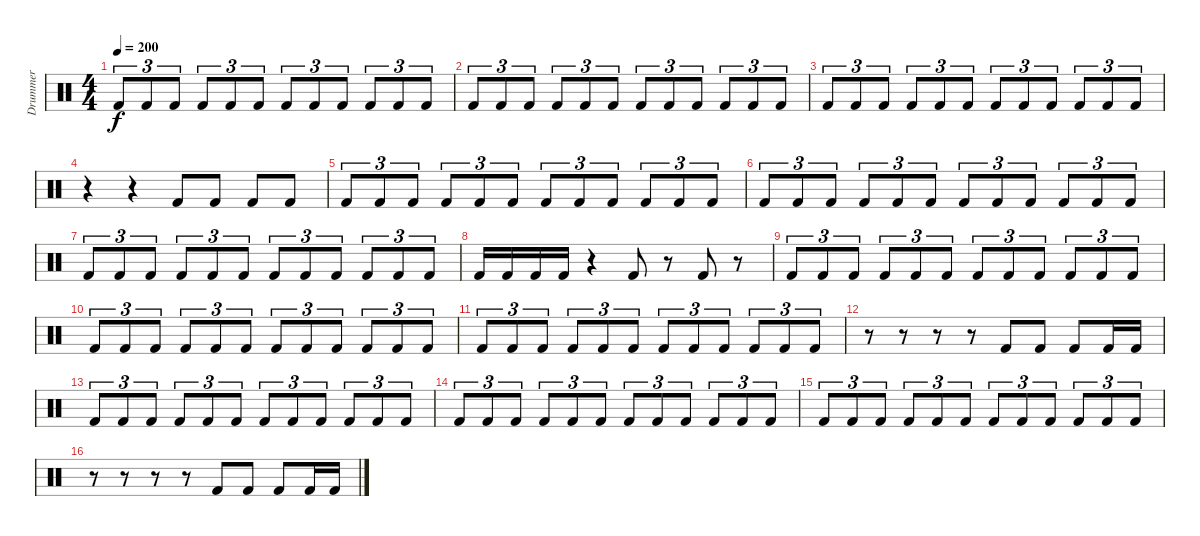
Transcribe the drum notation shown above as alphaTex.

\track ("Drummer" "Drummer") {instrument percussion}
\staff {score}
\articulation defaults
\ts (4 4)
\tempo 200
\clef neutral
\ks c "Kick (hit) 2".8{tu (3 2) dy f} "Kick (hit) 2".8{tu (3 2)} "Kick (hit) 2".8{tu (3 2)} "Kick (hit) 2".8{tu (3 2)} "Kick (hit) 2".8{tu (3 2)} "Kick (hit) 2".8{tu (3 2)} "Kick (hit) 2".8{tu (3 2)} "Kick (hit) 2".8{tu (3 2)} "Kick (hit) 2".8{tu (3 2)} "Kick (hit) 2".8{tu (3 2)} "Kick (hit) 2".8{tu (3 2)} "Kick (hit) 2".8{tu (3 2)}
|
"Kick (hit) 2".8{tu (3 2)} "Kick (hit) 2".8{tu (3 2)} "Kick (hit) 2".8{tu (3 2)} "Kick (hit) 2".8{tu (3 2)} "Kick (hit) 2".8{tu (3 2)} "Kick (hit) 2".8{tu (3 2)} "Kick (hit) 2".8{tu (3 2)} "Kick (hit) 2".8{tu (3 2)} "Kick (hit) 2".8{tu (3 2)} "Kick (hit) 2".8{tu (3 2)} "Kick (hit) 2".8{tu (3 2)} "Kick (hit) 2".8{tu (3 2)} |
"Kick (hit) 2".8{tu (3 2)} "Kick (hit) 2".8{tu (3 2)} "Kick (hit) 2".8{tu (3 2)} "Kick (hit) 2".8{tu (3 2)} "Kick (hit) 2".8{tu (3 2)} "Kick (hit) 2".8{tu (3 2)} "Kick (hit) 2".8{tu (3 2)} "Kick (hit) 2".8{tu (3 2)} "Kick (hit) 2".8{tu (3 2)} "Kick (hit) 2".8{tu (3 2)} "Kick (hit) 2".8{tu (3 2)} "Kick (hit) 2".8{tu (3 2)} |
r.4 r.4 "Kick (hit) 2".8 "Kick (hit) 2".8 "Kick (hit) 2".8 "Kick (hit) 2".8 |
"Kick (hit) 2".8{tu (3 2)} "Kick (hit) 2".8{tu (3 2)} "Kick (hit) 2".8{tu (3 2)} "Kick (hit) 2".8{tu (3 2)} "Kick (hit) 2".8{tu (3 2)} "Kick (hit) 2".8{tu (3 2)} "Kick (hit) 2".8{tu (3 2)} "Kick (hit) 2".8{tu (3 2)} "Kick (hit) 2".8{tu (3 2)} "Kick (hit) 2".8{tu (3 2)} "Kick (hit) 2".8{tu (3 2)} "Kick (hit) 2".8{tu (3 2)} |
"Kick (hit) 2".8{tu (3 2)} "Kick (hit) 2".8{tu (3 2)} "Kick (hit) 2".8{tu (3 2)} "Kick (hit) 2".8{tu (3 2)} "Kick (hit) 2".8{tu (3 2)} "Kick (hit) 2".8{tu (3 2)} "Kick (hit) 2".8{tu (3 2)} "Kick (hit) 2".8{tu (3 2)} "Kick (hit) 2".8{tu (3 2)} "Kick (hit) 2".8{tu (3 2)} "Kick (hit) 2".8{tu (3 2)} "Kick (hit) 2".8{tu (3 2)} |
"Kick (hit) 2".8{tu (3 2)} "Kick (hit) 2".8{tu (3 2)} "Kick (hit) 2".8{tu (3 2)} "Kick (hit) 2".8{tu (3 2)} "Kick (hit) 2".8{tu (3 2)} "Kick (hit) 2".8{tu (3 2)} "Kick (hit) 2".8{tu (3 2)} "Kick (hit) 2".8{tu (3 2)} "Kick (hit) 2".8{tu (3 2)} "Kick (hit) 2".8{tu (3 2)} "Kick (hit) 2".8{tu (3 2)} "Kick (hit) 2".8{tu (3 2)} |
"Kick (hit) 2".16 "Kick (hit) 2".16 "Kick (hit) 2".16 "Kick (hit) 2".16 r.4 "Kick (hit) 2".8 r.8 "Kick (hit) 2".8 r.8 |
"Kick (hit) 2".8{tu (3 2)} "Kick (hit) 2".8{tu (3 2)} "Kick (hit) 2".8{tu (3 2)} "Kick (hit) 2".8{tu (3 2)} "Kick (hit) 2".8{tu (3 2)} "Kick (hit) 2".8{tu (3 2)} "Kick (hit) 2".8{tu (3 2)} "Kick (hit) 2".8{tu (3 2)} "Kick (hit) 2".8{tu (3 2)} "Kick (hit) 2".8{tu (3 2)} "Kick (hit) 2".8{tu (3 2)} "Kick (hit) 2".8{tu (3 2)} |
"Kick (hit) 2".8{tu (3 2)} "Kick (hit) 2".8{tu (3 2)} "Kick (hit) 2".8{tu (3 2)} "Kick (hit) 2".8{tu (3 2)} "Kick (hit) 2".8{tu (3 2)} "Kick (hit) 2".8{tu (3 2)} "Kick (hit) 2".8{tu (3 2)} "Kick (hit) 2".8{tu (3 2)} "Kick (hit) 2".8{tu (3 2)} "Kick (hit) 2".8{tu (3 2)} "Kick (hit) 2".8{tu (3 2)} "Kick (hit) 2".8{tu (3 2)} |
"Kick (hit) 2".8{tu (3 2)} "Kick (hit) 2".8{tu (3 2)} "Kick (hit) 2".8{tu (3 2)} "Kick (hit) 2".8{tu (3 2)} "Kick (hit) 2".8{tu (3 2)} "Kick (hit) 2".8{tu (3 2)} "Kick (hit) 2".8{tu (3 2)} "Kick (hit) 2".8{tu (3 2)} "Kick (hit) 2".8{tu (3 2)} "Kick (hit) 2".8{tu (3 2)} "Kick (hit) 2".8{tu (3 2)} "Kick (hit) 2".8{tu (3 2)} |
r.8 r.8 r.8 r.8 "Kick (hit) 2".8 "Kick (hit) 2".8 "Kick (hit) 2".8 "Kick (hit) 2".16 "Kick (hit) 2".16 |
"Kick (hit) 2".8{tu (3 2)} "Kick (hit) 2".8{tu (3 2)} "Kick (hit) 2".8{tu (3 2)} "Kick (hit) 2".8{tu (3 2)} "Kick (hit) 2".8{tu (3 2)} "Kick (hit) 2".8{tu (3 2)} "Kick (hit) 2".8{tu (3 2)} "Kick (hit) 2".8{tu (3 2)} "Kick (hit) 2".8{tu (3 2)} "Kick (hit) 2".8{tu (3 2)} "Kick (hit) 2".8{tu (3 2)} "Kick (hit) 2".8{tu (3 2)} |
"Kick (hit) 2".8{tu (3 2)} "Kick (hit) 2".8{tu (3 2)} "Kick (hit) 2".8{tu (3 2)} "Kick (hit) 2".8{tu (3 2)} "Kick (hit) 2".8{tu (3 2)} "Kick (hit) 2".8{tu (3 2)} "Kick (hit) 2".8{tu (3 2)} "Kick (hit) 2".8{tu (3 2)} "Kick (hit) 2".8{tu (3 2)} "Kick (hit) 2".8{tu (3 2)} "Kick (hit) 2".8{tu (3 2)} "Kick (hit) 2".8{tu (3 2)} |
"Kick (hit) 2".8{tu (3 2)} "Kick (hit) 2".8{tu (3 2)} "Kick (hit) 2".8{tu (3 2)} "Kick (hit) 2".8{tu (3 2)} "Kick (hit) 2".8{tu (3 2)} "Kick (hit) 2".8{tu (3 2)} "Kick (hit) 2".8{tu (3 2)} "Kick (hit) 2".8{tu (3 2)} "Kick (hit) 2".8{tu (3 2)} "Kick (hit) 2".8{tu (3 2)} "Kick (hit) 2".8{tu (3 2)} "Kick (hit) 2".8{tu (3 2)} |
r.8 r.8 r.8 r.8 "Kick (hit) 2".8 "Kick (hit) 2".8 "Kick (hit) 2".8 "Kick (hit) 2".16 "Kick (hit) 2".16
